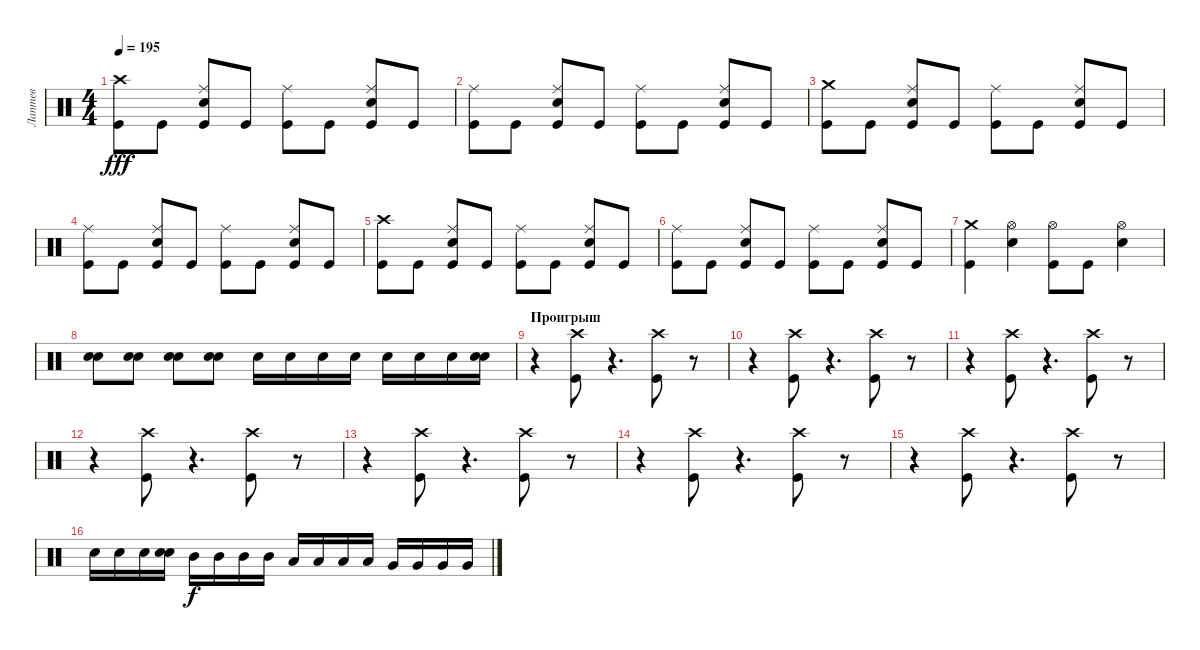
\track ("Лаптев" "Лаптев") {instrument percussion}
\staff {score}
\articulation defaults
\ts (4 4)
\tempo 195
\clef neutral
\ks c
("Crash high (hit)" "Kick (hit)").8{dy fff} "Kick (hit)".8 ("Ride (middle)" "Electric Snare (hit)" "Kick (hit)").8 "Kick (hit)".8 ("Ride (middle)" "Kick (hit)").8 "Kick (hit)".8 ("Ride (middle)" "Electric Snare (hit)" "Kick (hit)").8 "Kick (hit)".8 |
("Ride (middle)" "Kick (hit)").8 "Kick (hit)".8 ("Ride (middle)" "Electric Snare (hit)" "Kick (hit)").8 "Kick (hit)".8 ("Ride (middle)" "Kick (hit)").8 "Kick (hit)".8 ("Ride (middle)" "Electric Snare (hit)" "Kick (hit)").8 "Kick (hit)".8 |
("Crash medium (hit)" "Kick (hit)").8 "Kick (hit)".8 ("Ride (middle)" "Electric Snare (hit)" "Kick (hit)").8 "Kick (hit)".8 ("Ride (middle)" "Kick (hit)").8 "Kick (hit)".8 ("Ride (middle)" "Electric Snare (hit)" "Kick (hit)").8 "Kick (hit)".8 |
("Ride (middle)" "Kick (hit)").8 "Kick (hit)".8 ("Ride (middle)" "Electric Snare (hit)" "Kick (hit)").8 "Kick (hit)".8 ("Ride (middle)" "Kick (hit)").8 "Kick (hit)".8 ("Ride (middle)" "Electric Snare (hit)" "Kick (hit)").8 "Kick (hit)".8 |
("Crash high (hit)" "Kick (hit)").8 "Kick (hit)".8 ("Ride (middle)" "Electric Snare (hit)" "Kick (hit)").8 "Kick (hit)".8 ("Ride (middle)" "Kick (hit)").8 "Kick (hit)".8 ("Ride (middle)" "Electric Snare (hit)" "Kick (hit)").8 "Kick (hit)".8 |
("Ride (middle)" "Kick (hit)").8 "Kick (hit)".8 ("Ride (middle)" "Electric Snare (hit)" "Kick (hit)").8 "Kick (hit)".8 ("Ride (middle)" "Kick (hit)").8 "Kick (hit)".8 ("Ride (middle)" "Electric Snare (hit)" "Kick (hit)").8 "Kick (hit)".8 |
("Crash medium (hit)" "Kick (hit)").4 ("Hi-Hat (open)" "Electric Snare (hit)").4 ("Hi-Hat (open)" "Kick (hit)").8 "Kick (hit)".8 ("Hi-Hat (open)" "Electric Snare (hit)").4 |
("Electric Snare (hit)" "Electric Snare (hit)").8 ("Electric Snare (hit)" "Electric Snare (hit)").8 ("Electric Snare (hit)" "Electric Snare (hit)").8 ("Electric Snare (hit)" "Electric Snare (hit)").8 "Electric Snare (hit)".16 "Electric Snare (hit)".16 "Electric Snare (hit)".16 "Electric Snare (hit)".16 "Electric Snare (hit)".16 "Electric Snare (hit)".16 "Electric Snare (hit)".16 ("Electric Snare (hit)" "Electric Snare (hit)").16 |
\section ("" "Проигрыш")
r.4 ("Crash high (hit)" "Kick (hit)").8 r.4{d} ("Crash high (hit)" "Kick (hit)").8 r.8 |
r.4 ("Crash high (hit)" "Kick (hit)").8 r.4{d} ("Crash high (hit)" "Kick (hit)").8 r.8 |
r.4 ("Crash high (hit)" "Kick (hit)").8 r.4{d} ("Crash high (hit)" "Kick (hit)").8 r.8 |
r.4 ("Crash high (hit)" "Kick (hit)").8 r.4{d} ("Crash high (hit)" "Kick (hit)").8 r.8 |
r.4 ("Crash high (hit)" "Kick (hit)").8 r.4{d} ("Crash high (hit)" "Kick (hit)").8 r.8 |
r.4 ("Crash high (hit)" "Kick (hit)").8 r.4{d} ("Crash high (hit)" "Kick (hit)").8 r.8 |
r.4 ("Crash high (hit)" "Kick (hit)").8 r.4{d} ("Crash high (hit)" "Kick (hit)").8 r.8 |
"Electric Snare (hit)".16 "Electric Snare (hit)".16 "Electric Snare (hit)".16 ("Electric Snare (hit)" "Electric Snare (hit)").16 "Mid Tom (hit)".16{dy f} "Mid Tom (hit)".16 "Mid Tom (hit)".16 "Mid Tom (hit)".16 "Low Tom (hit)".16 "Low Tom (hit)".16 "Low Tom (hit)".16 "Low Tom (hit)".16 "Very Low Tom (hit)".16 "Very Low Tom (hit)".16 "Very Low Tom (hit)".16 "Very Low Tom (hit)".16
